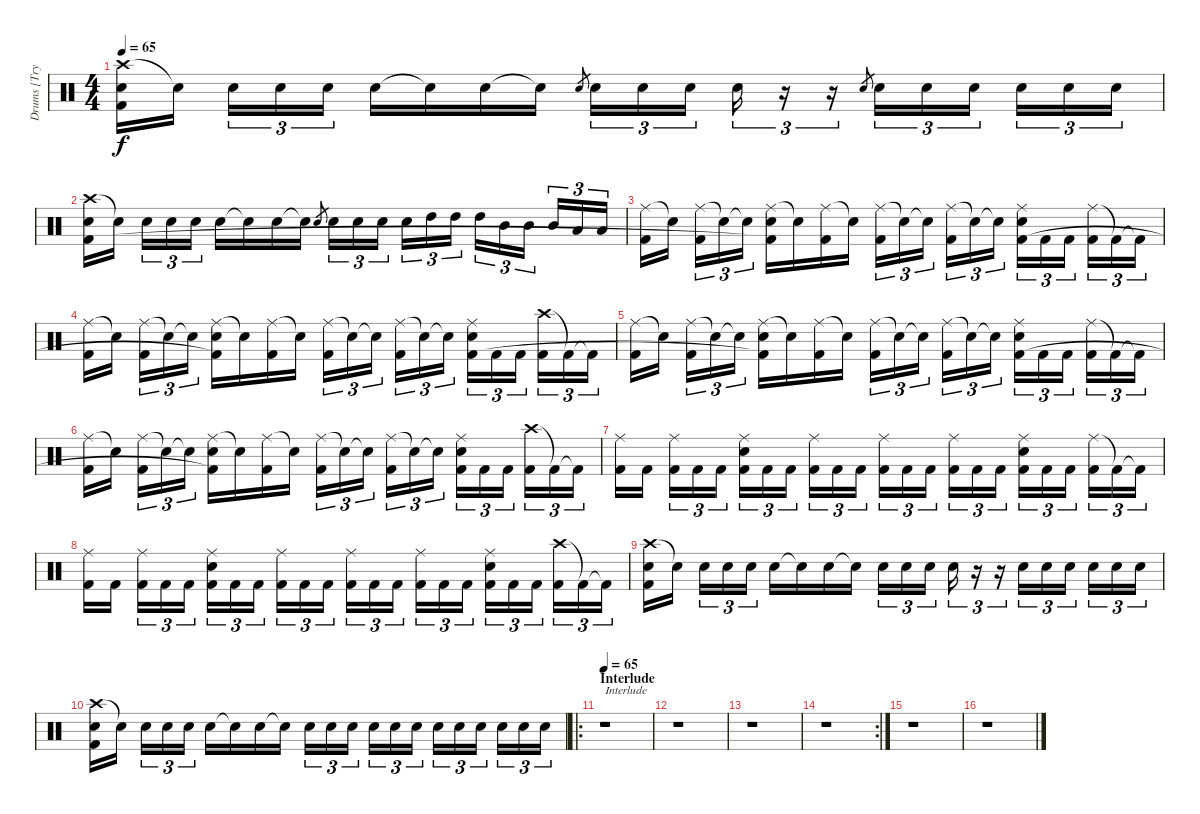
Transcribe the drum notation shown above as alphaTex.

\track ("Drums [Trym]" "Drums [Try") {instrument percussion}
\staff {score}
\articulation defaults
\ts (4 4)
\tempo 65
\clef neutral
\ks c
("Crash high (hit)" "Electric Snare (hit)" "Kick (hit) 2").16{dy f} "Snare (hit)"{t}.16 "Electric Snare (hit)".16{tu (3 2)} "Electric Snare (hit)".16{tu (3 2)} "Electric Snare (hit)".16{tu (3 2)} "Electric Snare (hit)".16 "Snare (hit)"{t}.16 "Electric Snare (hit)".16 "Snare (hit)"{t}.16 "Electric Snare (hit)"{h}.8{gr} "Electric Snare (hit)".16{tu (3 2)} "Electric Snare (hit)".16{tu (3 2)} "Electric Snare (hit)".16{tu (3 2)} "Electric Snare (hit)".16{tu (3 2)} r.16{tu (3 2)} r.16{tu (3 2)} "Electric Snare (hit)"{h}.8{gr} "Electric Snare (hit)".16{tu (3 2)} "Electric Snare (hit)".16{tu (3 2)} "Electric Snare (hit)".16{tu (3 2)} "Electric Snare (hit)".16{tu (3 2)} "Electric Snare (hit)".16{tu (3 2)} "Electric Snare (hit)".16{tu (3 2)} |
("Crash high (hit)" "Electric Snare (hit)" "Kick (hit) 2").16 "Snare (hit)"{t}.16 "Electric Snare (hit)".16{tu (3 2)} "Electric Snare (hit)".16{tu (3 2)} "Electric Snare (hit)".16{tu (3 2)} "Electric Snare (hit)".16 "Snare (hit)"{t}.16 "Electric Snare (hit)".16 "Snare (hit)"{t}.16 "Electric Snare (hit)"{h}.8{gr} "Electric Snare (hit)".16{tu (3 2)} "Electric Snare (hit)".16{tu (3 2)} "Electric Snare (hit)".16{tu (3 2)} "Electric Snare (hit)".16{tu (3 2)} "High Tom (hit)".16{tu (3 2)} "High Tom (hit)".16{tu (3 2)} "High Tom (hit)".16{tu (3 2)} "Mid Tom (hit)".16{tu (3 2)} "Mid Tom (hit)".16{tu (3 2)} "Mid Tom (hit)".16{tu (3 2)} "Low Tom (hit)".16{tu (3 2)} "Low Tom (hit)".16{tu (3 2)} |
("Ride (middle)" "Kick (hit) 2").16 "Snare (hit)"{t}.16 ("Ride (middle)" "Kick (hit) 2").16{tu (3 2)} "Snare (hit)"{t}.16{tu (3 2)} "Snare (hit)"{t}.16{tu (3 2)} ("Ride (middle)" "Electric Snare (hit)" "Kick (hit) 2"{t}).16 "Snare (hit)"{t}.16 ("Ride (middle)" "Kick (hit) 2").16 "Snare (hit)"{t}.16 ("Ride (middle)" "Kick (hit) 2").16{tu (3 2)} "Snare (hit)"{t}.16{tu (3 2)} "Snare (hit)"{t}.16{tu (3 2)} ("Ride (middle)" "Kick (hit) 2").16{tu (3 2)} "Snare (hit)"{t}.16{tu (3 2)} "Snare (hit)"{t}.16{tu (3 2)} ("Ride (middle)" "Electric Snare (hit)" "Kick (hit) 2").16{tu (3 2)} "Kick (hit) 2".16{tu (3 2)} "Kick (hit) 2".16{tu (3 2)} ("Ride (middle)" "Kick (hit) 2").16{tu (3 2)} "Kick (hit) 2"{t}.16{tu (3 2)} "Kick (hit) 2"{t}.16{tu (3 2)} |
("Ride (middle)" "Kick (hit) 2").16 "Snare (hit)"{t}.16 ("Ride (middle)" "Kick (hit) 2").16{tu (3 2)} "Snare (hit)"{t}.16{tu (3 2)} "Snare (hit)"{t}.16{tu (3 2)} ("Ride (middle)" "Electric Snare (hit)" "Kick (hit) 2"{t}).16 "Snare (hit)"{t}.16 ("Ride (middle)" "Kick (hit) 2").16 "Snare (hit)"{t}.16 ("Ride (middle)" "Kick (hit) 2").16{tu (3 2)} "Snare (hit)"{t}.16{tu (3 2)} "Snare (hit)"{t}.16{tu (3 2)} ("Ride (middle)" "Kick (hit) 2").16{tu (3 2)} "Snare (hit)"{t}.16{tu (3 2)} "Snare (hit)"{t}.16{tu (3 2)} ("Ride (middle)" "Electric Snare (hit)" "Kick (hit) 2").16{tu (3 2)} "Kick (hit) 2".16{tu (3 2)} "Kick (hit) 2".16{tu (3 2)} ("Crash high (hit)" "Kick (hit) 2").16{tu (3 2)} "Kick (hit) 2"{t}.16{tu (3 2)} "Kick (hit) 2"{t}.16{tu (3 2)} |
("Ride (middle)" "Kick (hit) 2").16 "Snare (hit)"{t}.16 ("Ride (middle)" "Kick (hit) 2").16{tu (3 2)} "Snare (hit)"{t}.16{tu (3 2)} "Snare (hit)"{t}.16{tu (3 2)} ("Ride (middle)" "Electric Snare (hit)" "Kick (hit) 2"{t}).16 "Snare (hit)"{t}.16 ("Ride (middle)" "Kick (hit) 2").16 "Snare (hit)"{t}.16 ("Ride (middle)" "Kick (hit) 2").16{tu (3 2)} "Snare (hit)"{t}.16{tu (3 2)} "Snare (hit)"{t}.16{tu (3 2)} ("Ride (middle)" "Kick (hit) 2").16{tu (3 2)} "Snare (hit)"{t}.16{tu (3 2)} "Snare (hit)"{t}.16{tu (3 2)} ("Ride (middle)" "Electric Snare (hit)" "Kick (hit) 2").16{tu (3 2)} "Kick (hit) 2".16{tu (3 2)} "Kick (hit) 2".16{tu (3 2)} ("Ride (middle)" "Kick (hit) 2").16{tu (3 2)} "Kick (hit) 2"{t}.16{tu (3 2)} "Kick (hit) 2"{t}.16{tu (3 2)} |
("Ride (middle)" "Kick (hit) 2").16 "Snare (hit)"{t}.16 ("Ride (middle)" "Kick (hit) 2").16{tu (3 2)} "Snare (hit)"{t}.16{tu (3 2)} "Snare (hit)"{t}.16{tu (3 2)} ("Ride (middle)" "Electric Snare (hit)" "Kick (hit) 2"{t}).16 "Snare (hit)"{t}.16 ("Ride (middle)" "Kick (hit) 2").16 "Snare (hit)"{t}.16 ("Ride (middle)" "Kick (hit) 2").16{tu (3 2)} "Snare (hit)"{t}.16{tu (3 2)} "Snare (hit)"{t}.16{tu (3 2)} ("Ride (middle)" "Kick (hit) 2").16{tu (3 2)} "Snare (hit)"{t}.16{tu (3 2)} "Snare (hit)"{t}.16{tu (3 2)} ("Ride (middle)" "Electric Snare (hit)" "Kick (hit) 2").16{tu (3 2)} "Kick (hit) 2".16{tu (3 2)} "Kick (hit) 2".16{tu (3 2)} ("Crash high (hit)" "Kick (hit) 2").16{tu (3 2)} "Kick (hit) 2"{t}.16{tu (3 2)} "Kick (hit) 2"{t}.16{tu (3 2)} |
("Ride (middle)" "Kick (hit) 2").16 "Kick (hit) 2".16 ("Ride (middle)" "Kick (hit) 2").16{tu (3 2)} "Kick (hit) 2".16{tu (3 2)} "Kick (hit) 2".16{tu (3 2)} ("Ride (middle)" "Electric Snare (hit)" "Kick (hit) 2").16{tu (3 2)} "Kick (hit) 2".16{tu (3 2)} "Kick (hit) 2".16{tu (3 2)} ("Ride (middle)" "Kick (hit) 2").16{tu (3 2)} "Kick (hit) 2".16{tu (3 2)} "Kick (hit) 2".16{tu (3 2)} ("Ride (middle)" "Kick (hit) 2").16{tu (3 2)} "Kick (hit) 2".16{tu (3 2)} "Kick (hit) 2".16{tu (3 2)} ("Ride (middle)" "Kick (hit) 2").16{tu (3 2)} "Kick (hit) 2".16{tu (3 2)} "Kick (hit) 2".16{tu (3 2)} ("Ride (middle)" "Electric Snare (hit)" "Kick (hit) 2").16{tu (3 2)} "Kick (hit) 2".16{tu (3 2)} "Kick (hit) 2".16{tu (3 2)} ("Ride (middle)" "Kick (hit) 2").16{tu (3 2)} "Kick (hit) 2"{t}.16{tu (3 2)} "Kick (hit) 2"{t}.16{tu (3 2)} |
("Ride (middle)" "Kick (hit) 2").16 "Kick (hit) 2".16 ("Ride (middle)" "Kick (hit) 2").16{tu (3 2)} "Kick (hit) 2".16{tu (3 2)} "Kick (hit) 2".16{tu (3 2)} ("Ride (middle)" "Electric Snare (hit)" "Kick (hit) 2").16{tu (3 2)} "Kick (hit) 2".16{tu (3 2)} "Kick (hit) 2".16{tu (3 2)} ("Ride (middle)" "Kick (hit) 2").16{tu (3 2)} "Kick (hit) 2".16{tu (3 2)} "Kick (hit) 2".16{tu (3 2)} ("Ride (middle)" "Kick (hit) 2").16{tu (3 2)} "Kick (hit) 2".16{tu (3 2)} "Kick (hit) 2".16{tu (3 2)} ("Ride (middle)" "Kick (hit) 2").16{tu (3 2)} "Kick (hit) 2".16{tu (3 2)} "Kick (hit) 2".16{tu (3 2)} ("Ride (middle)" "Electric Snare (hit)" "Kick (hit) 2").16{tu (3 2)} "Kick (hit) 2".16{tu (3 2)} "Kick (hit) 2".16{tu (3 2)} ("Crash high (hit)" "Kick (hit) 2").16{tu (3 2)} "Kick (hit) 2"{t}.16{tu (3 2)} "Kick (hit) 2"{t}.16{tu (3 2)} |
("Crash high (hit)" "Electric Snare (hit)" "Kick (hit) 2").16 "Snare (hit)"{t}.16 "Electric Snare (hit)".16{tu (3 2)} "Electric Snare (hit)".16{tu (3 2)} "Electric Snare (hit)".16{tu (3 2)} "Electric Snare (hit)".16 "Snare (hit)"{t}.16 "Electric Snare (hit)".16 "Snare (hit)"{t}.16 "Electric Snare (hit)".16{tu (3 2)} "Electric Snare (hit)".16{tu (3 2)} "Electric Snare (hit)".16{tu (3 2)} "Electric Snare (hit)".16{tu (3 2)} r.16{tu (3 2)} r.16{tu (3 2)} "Electric Snare (hit)".16{tu (3 2)} "Electric Snare (hit)".16{tu (3 2)} "Electric Snare (hit)".16{tu (3 2)} "Electric Snare (hit)".16{tu (3 2)} "Electric Snare (hit)".16{tu (3 2)} "Electric Snare (hit)".16{tu (3 2)} |
("Crash high (hit)" "Electric Snare (hit)" "Kick (hit) 2").16 "Snare (hit)"{t}.16 "Electric Snare (hit)".16{tu (3 2)} "Electric Snare (hit)".16{tu (3 2)} "Electric Snare (hit)".16{tu (3 2)} "Electric Snare (hit)".16 "Snare (hit)"{t}.16 "Electric Snare (hit)".16 "Snare (hit)"{t}.16 "Electric Snare (hit)".16{tu (3 2)} "Electric Snare (hit)".16{tu (3 2)} "Electric Snare (hit)".16{tu (3 2)} "Electric Snare (hit)".16{tu (3 2)} "Electric Snare (hit)".16{tu (3 2)} "Electric Snare (hit)".16{tu (3 2)} "Electric Snare (hit)".16{tu (3 2)} "Electric Snare (hit)".16{tu (3 2)} "Electric Snare (hit)".16{tu (3 2)} "Electric Snare (hit)".16{tu (3 2)} "Electric Snare (hit)".16{tu (3 2)} "Electric Snare (hit)".16{tu (3 2)} |
\ro
\section ("" "Interlude")
\tempo 65
r.1{txt "Interlude"} |
r.1 |
r.1 |
\rc 2
r.1 |
r.1 |
r.1
